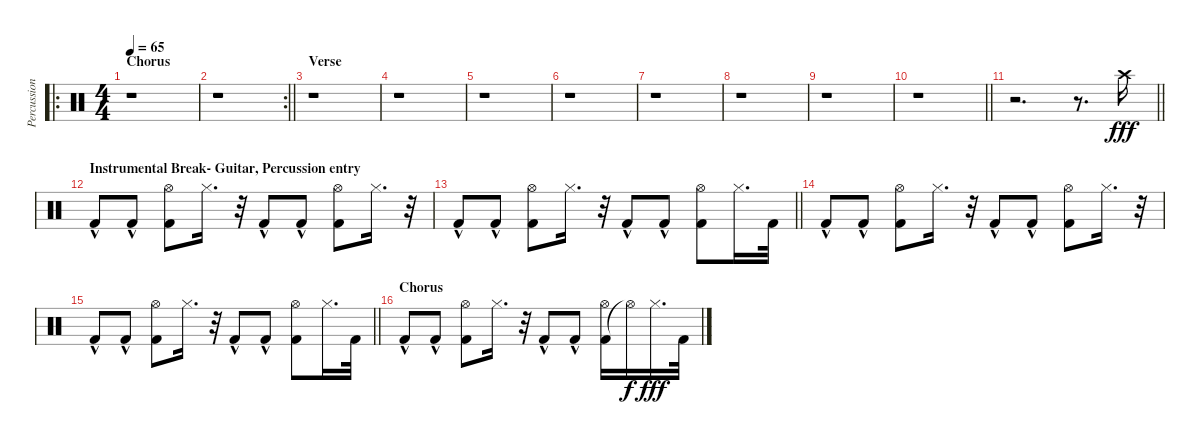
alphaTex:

\track ("Percussion" "Percussion") {instrument percussion}
\staff {score}
\articulation defaults
\ro
\ts (4 4)
\section ("" "Chorus")
\tempo 65
\clef neutral
\ks c
r.1{dy fff} |
\rc 2
\barLineRight lightlight
r.1 |
\section ("" "Verse")
r.1 |
r.1 |
r.1 |
r.1 |
r.1 |
r.1 |
r.1 |
\barLineRight lightlight
r.1 |
\section ("" "")
\barLineRight lightlight
r.2{d} r.8{d} "Crash high (hit)".16 |
\section ("" "Instrumental Break- Guitar, Percussion entry")
"Kick (hit) 2"{hac}.8 "Kick (hit) 2"{hac}.8 ("Kick (hit) 2" "Hi-Hat (open)").8 "Hi-Hat (closed)".16{d} r.32 "Kick (hit) 2"{hac}.8 "Kick (hit) 2"{hac}.8 ("Kick (hit) 2" "Hi-Hat (open)").8 "Hi-Hat (closed)".16{d} r.32 |
\barLineRight lightlight "Kick (hit) 2"{hac}.8 "Kick (hit) 2"{hac}.8
("Kick (hit) 2" "Hi-Hat (open)").8 "Hi-Hat (closed)".16{d} r.32 "Kick (hit) 2"{hac}.8 "Kick (hit) 2"{hac}.8 ("Kick (hit) 2" "Hi-Hat (open)").8 "Hi-Hat (closed)".16{d} "Kick (hit) 2".32 |
"Kick (hit) 2"{hac}.8 "Kick (hit) 2"{hac}.8 ("Kick (hit) 2" "Hi-Hat (open)").8 "Hi-Hat (closed)".16{d} r.32 "Kick (hit) 2"{hac}.8 "Kick (hit) 2"{hac}.8 ("Kick (hit) 2" "Hi-Hat (open)").8 "Hi-Hat (closed)".16{d} r.32 |
\barLineRight lightlight "Kick (hit) 2"{hac}.8 "Kick (hit) 2"{hac}.8
("Kick (hit) 2" "Hi-Hat (open)").8 "Hi-Hat (closed)".16{d} r.32 "Kick (hit) 2"{hac}.8 "Kick (hit) 2"{hac}.8 ("Kick (hit) 2" "Hi-Hat (open)").8 "Hi-Hat (closed)".16{d} "Kick (hit) 2".32 |
\section ("" "Chorus")
"Kick (hit) 2"{hac}.8 "Kick (hit) 2"{hac}.8 ("Kick (hit) 2" "Hi-Hat (open)").8 "Hi-Hat (closed)".16{d} r.32 "Kick (hit) 2"{hac}.8 "Kick (hit) 2"{hac}.8 ("Kick (hit) 2" "Hi-Hat (open)").16 "Hi-Hat (open)"{t}.16{dy f} "Hi-Hat (closed)".16{d dy fff} "Kick (hit) 2".32
